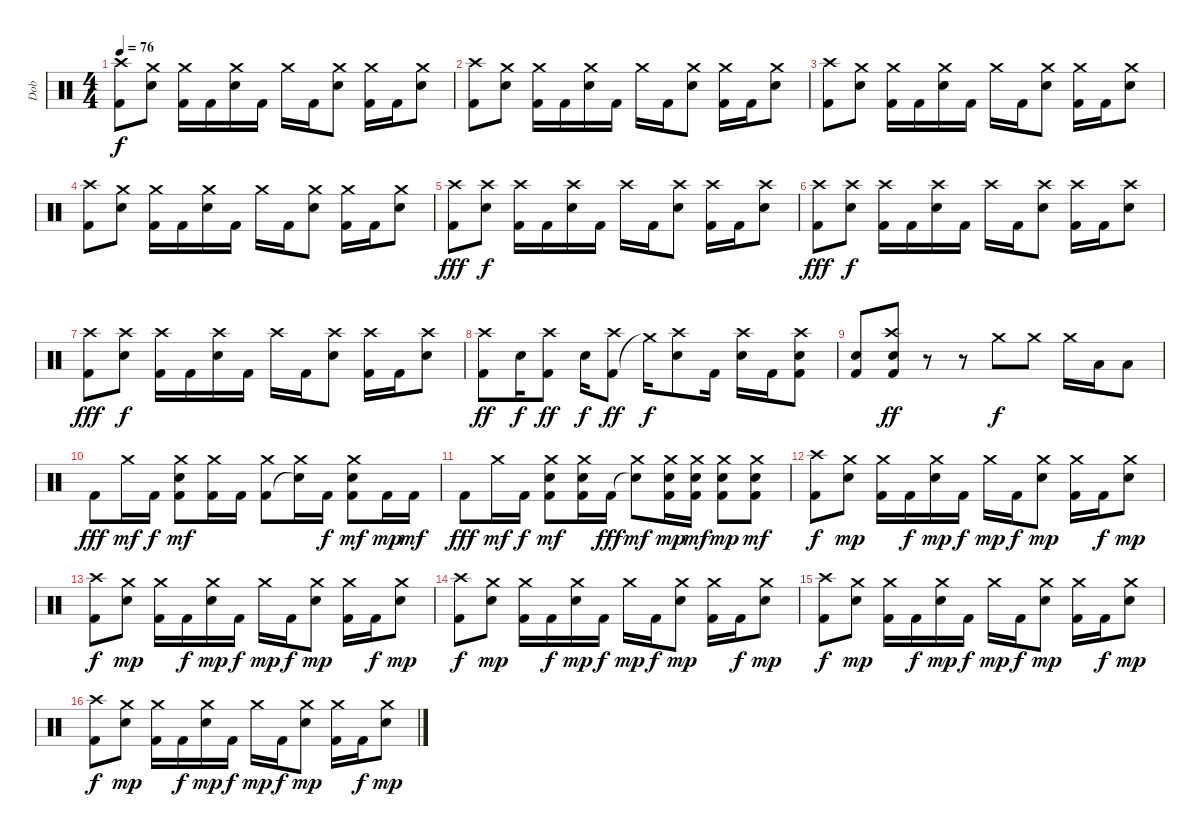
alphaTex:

\track ("Dob" "Dob") {instrument percussion}
\staff {score}
\articulation defaults
\ts (4 4)
\tempo 76
\clef neutral
\ks c
("Kick (hit) 2" "Crash high (hit)").8{dy f} ("Electric Snare (hit)" "Crash medium (hit)").8 ("Kick (hit) 2" "Crash medium (hit)").16 "Kick (hit) 2".16 ("Electric Snare (hit)" "Crash medium (hit)").16 "Kick (hit) 2".16 "Crash medium (hit)".16 "Kick (hit) 2".16 ("Electric Snare (hit)" "Crash medium (hit)").8 ("Kick (hit) 2" "Crash medium (hit)").16 "Kick (hit) 2".16 ("Electric Snare (hit)" "Crash medium (hit)").8 |
("Kick (hit) 2" "Crash high (hit)").8 ("Electric Snare (hit)" "Crash medium (hit)").8 ("Kick (hit) 2" "Crash medium (hit)").16 "Kick (hit) 2".16 ("Electric Snare (hit)" "Crash medium (hit)").16 "Kick (hit) 2".16 "Crash medium (hit)".16 "Kick (hit) 2".16 ("Electric Snare (hit)" "Crash medium (hit)").8 ("Kick (hit) 2" "Crash medium (hit)").16 "Kick (hit) 2".16 ("Electric Snare (hit)" "Crash medium (hit)").8 |
("Kick (hit) 2" "Crash high (hit)").8 ("Electric Snare (hit)" "Crash medium (hit)").8 ("Kick (hit) 2" "Crash medium (hit)").16 "Kick (hit) 2".16 ("Electric Snare (hit)" "Crash medium (hit)").16 "Kick (hit) 2".16 "Crash medium (hit)".16 "Kick (hit) 2".16 ("Electric Snare (hit)" "Crash medium (hit)").8 ("Kick (hit) 2" "Crash medium (hit)").16 "Kick (hit) 2".16 ("Electric Snare (hit)" "Crash medium (hit)").8 |
("Kick (hit) 2" "Crash high (hit)").8 ("Electric Snare (hit)" "Crash medium (hit)").8 ("Kick (hit) 2" "Crash medium (hit)").16 "Kick (hit) 2".16 ("Electric Snare (hit)" "Crash medium (hit)").16 "Kick (hit) 2".16 "Crash medium (hit)".16 "Kick (hit) 2".16 ("Electric Snare (hit)" "Crash medium (hit)").8 ("Kick (hit) 2" "Crash medium (hit)").16 "Kick (hit) 2".16 ("Electric Snare (hit)" "Crash medium (hit)").8 |
("Kick (hit) 2" "Crash high (hit)").8{dy fff} ("Electric Snare (hit)" "Crash high (hit)").8{dy f} ("Kick (hit) 2" "Crash high (hit)").16 "Kick (hit) 2".16 ("Electric Snare (hit)" "Crash high (hit)").16 "Kick (hit) 2".16 "Crash high (hit)".16 "Kick (hit) 2".16 ("Electric Snare (hit)" "Crash high (hit)").8 ("Kick (hit) 2" "Crash high (hit)").16 "Kick (hit) 2".16 ("Electric Snare (hit)" "Crash high (hit)").8 |
("Kick (hit) 2" "Crash high (hit)").8{dy fff} ("Electric Snare (hit)" "Crash high (hit)").8{dy f} ("Kick (hit) 2" "Crash high (hit)").16 "Kick (hit) 2".16 ("Electric Snare (hit)" "Crash high (hit)").16 "Kick (hit) 2".16 "Crash high (hit)".16 "Kick (hit) 2".16 ("Electric Snare (hit)" "Crash high (hit)").8 ("Kick (hit) 2" "Crash high (hit)").16 "Kick (hit) 2".16 ("Electric Snare (hit)" "Crash high (hit)").8 |
("Kick (hit) 2" "Crash high (hit)").8{dy fff} ("Electric Snare (hit)" "Crash high (hit)").8{dy f} ("Kick (hit) 2" "Crash high (hit)").16 "Kick (hit) 2".16 ("Electric Snare (hit)" "Crash high (hit)").16 "Kick (hit) 2".16 "Crash high (hit)".16 "Kick (hit) 2".16 ("Electric Snare (hit)" "Crash high (hit)").8 ("Kick (hit) 2" "Crash high (hit)").16 "Kick (hit) 2".16 ("Electric Snare (hit)" "Crash high (hit)").8 |
("Kick (hit) 2" "Crash high (hit)").8{dy ff} "Electric Snare (hit)".16{dy f} ("Kick (hit) 2" "Crash high (hit)").8{dy ff} "Electric Snare (hit)".16{dy f} ("Kick (hit) 2" "Crash high (hit)").8{dy ff} "Crash medium (hit)"{t}.16{dy f} ("Electric Snare (hit)" "Crash high (hit)").8 "Kick (hit) 2".16 ("Electric Snare (hit)" "Crash high (hit)").16 "Kick (hit) 2".16 ("Electric Snare (hit)" "Kick (hit) 2" "Crash high (hit)").8 |
("Electric Snare (hit)" "Kick (hit) 2").8 ("Electric Snare (hit)" "Kick (hit) 2" "Crash high (hit)").8{dy ff} r.8 r.8 "Crash medium (hit)".8{dy f} "Crash medium (hit)".8 "Crash medium (hit)".16 "Low Floor Tom (hit)".16 "Low Floor Tom (hit)".8 |
"Kick (hit) 2".8{dy fff} "Crash medium (hit)".16{dy mf} "Kick (hit) 2".16{dy f} ("Electric Snare (hit)" "Kick (hit) 2" "Crash medium (hit)").8{dy mf} ("Kick (hit) 2" "Crash medium (hit)").16 "Kick (hit) 2".16 ("Kick (hit) 2" "Crash medium (hit)").8 ("Snare (hit)"{t} "Crash medium (hit)").16 "Kick (hit) 2".16{dy f} ("Electric Snare (hit)" "Kick (hit) 2" "Crash medium (hit)").8{dy mf} "Kick (hit) 2".16{dy mp} "Kick (hit) 2".16{dy mf} |
"Kick (hit) 2".8{dy fff} "Crash medium (hit)".16{dy mf} "Kick (hit) 2".16{dy f} ("Electric Snare (hit)" "Kick (hit) 2" "Crash medium (hit)").8{dy mf} ("Electric Snare (hit)" "Kick (hit) 2" "Crash medium (hit)").16 "Kick (hit) 2".16{dy fff} ("Snare (hit)"{t} "Crash medium (hit)").8{dy mf} ("Electric Snare (hit)" "Kick (hit) 2" "Crash medium (hit)").16{dy mp} ("Electric Snare (hit)" "Kick (hit) 2" "Crash medium (hit)").16{dy mf} ("Electric Snare (hit)" "Kick (hit) 2" "Crash medium (hit)").8{dy mp} ("Electric Snare (hit)" "Kick (hit) 2" "Crash medium (hit)").8{dy mf} |
("Kick (hit) 2" "Crash high (hit)").8{dy f} ("Electric Snare (hit)" "Crash medium (hit)").8{dy mp} ("Kick (hit) 2" "Crash medium (hit)").16 "Kick (hit) 2".16{dy f} ("Electric Snare (hit)" "Crash medium (hit)").16{dy mp} "Kick (hit) 2".16{dy f} "Crash medium (hit)".16{dy mp} "Kick (hit) 2".16{dy f} ("Electric Snare (hit)" "Crash medium (hit)").8{dy mp} ("Kick (hit) 2" "Crash medium (hit)").16 "Kick (hit) 2".16{dy f} ("Electric Snare (hit)" "Crash medium (hit)").8{dy mp} |
("Kick (hit) 2" "Crash high (hit)").8{dy f} ("Electric Snare (hit)" "Crash medium (hit)").8{dy mp} ("Kick (hit) 2" "Crash medium (hit)").16 "Kick (hit) 2".16{dy f} ("Electric Snare (hit)" "Crash medium (hit)").16{dy mp} "Kick (hit) 2".16{dy f} "Crash medium (hit)".16{dy mp} "Kick (hit) 2".16{dy f} ("Electric Snare (hit)" "Crash medium (hit)").8{dy mp} ("Kick (hit) 2" "Crash medium (hit)").16 "Kick (hit) 2".16{dy f} ("Electric Snare (hit)" "Crash medium (hit)").8{dy mp} |
("Kick (hit) 2" "Crash high (hit)").8{dy f} ("Electric Snare (hit)" "Crash medium (hit)").8{dy mp} ("Kick (hit) 2" "Crash medium (hit)").16 "Kick (hit) 2".16{dy f} ("Electric Snare (hit)" "Crash medium (hit)").16{dy mp} "Kick (hit) 2".16{dy f} "Crash medium (hit)".16{dy mp} "Kick (hit) 2".16{dy f} ("Electric Snare (hit)" "Crash medium (hit)").8{dy mp} ("Kick (hit) 2" "Crash medium (hit)").16 "Kick (hit) 2".16{dy f} ("Electric Snare (hit)" "Crash medium (hit)").8{dy mp} |
("Kick (hit) 2" "Crash high (hit)").8{dy f} ("Electric Snare (hit)" "Crash medium (hit)").8{dy mp} ("Kick (hit) 2" "Crash medium (hit)").16 "Kick (hit) 2".16{dy f} ("Electric Snare (hit)" "Crash medium (hit)").16{dy mp} "Kick (hit) 2".16{dy f} "Crash medium (hit)".16{dy mp} "Kick (hit) 2".16{dy f} ("Electric Snare (hit)" "Crash medium (hit)").8{dy mp} ("Kick (hit) 2" "Crash medium (hit)").16 "Kick (hit) 2".16{dy f} ("Electric Snare (hit)" "Crash medium (hit)").8{dy mp} |
("Kick (hit) 2" "Crash high (hit)").8{dy f} ("Electric Snare (hit)" "Crash medium (hit)").8{dy mp} ("Kick (hit) 2" "Crash medium (hit)").16 "Kick (hit) 2".16{dy f} ("Electric Snare (hit)" "Crash medium (hit)").16{dy mp} "Kick (hit) 2".16{dy f} "Crash medium (hit)".16{dy mp} "Kick (hit) 2".16{dy f} ("Electric Snare (hit)" "Crash medium (hit)").8{dy mp} ("Kick (hit) 2" "Crash medium (hit)").16 "Kick (hit) 2".16{dy f} ("Electric Snare (hit)" "Crash medium (hit)").8{dy mp}
